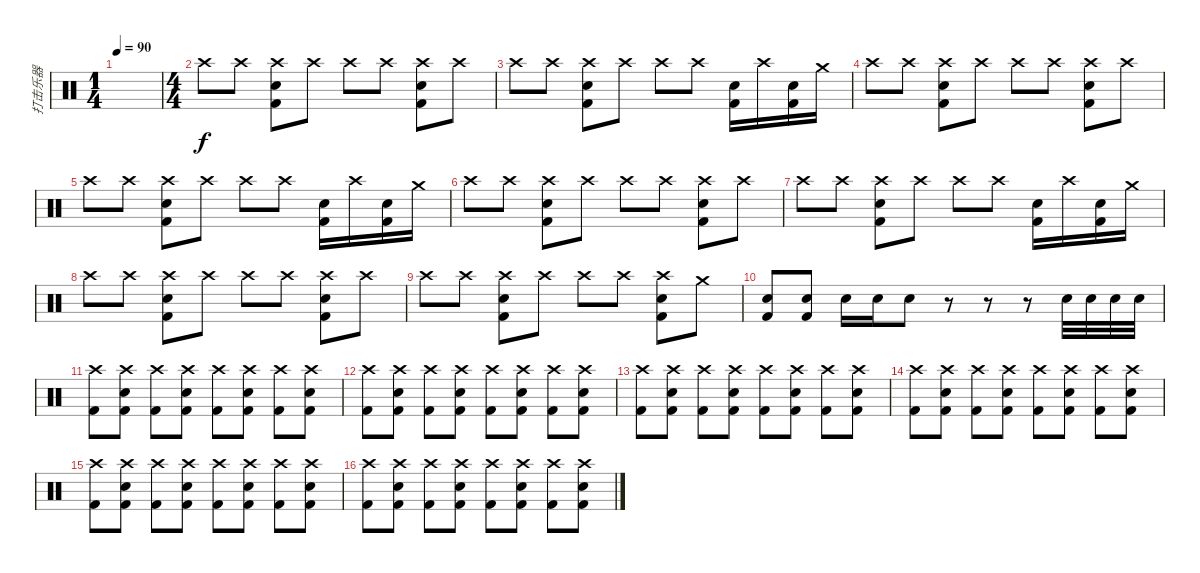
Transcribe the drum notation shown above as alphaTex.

\track ("打击乐器" "打击乐器") {instrument percussion}
\staff {score}
\articulation defaults
\ts (1 4)
\tempo 90
\clef neutral
\ks c
|
\ts (4 4)
"Crash high (hit)".8 "Crash high (hit)".8 ("Crash high (hit)" "Electric Snare (hit)" "Kick (hit) 2").8 "Crash high (hit)".8 "Crash high (hit)".8 "Crash high (hit)".8 ("Crash high (hit)" "Electric Snare (hit)" "Kick (hit) 2").8 "Crash high (hit)".8 |
"Crash high (hit)".8 "Crash high (hit)".8 ("Crash high (hit)" "Electric Snare (hit)" "Kick (hit) 2").8 "Crash high (hit)".8 "Crash high (hit)".8 "Crash high (hit)".8 ("Electric Snare (hit)" "Kick (hit) 2").16 "Crash high (hit)".16 ("Electric Snare (hit)" "Kick (hit) 2").16 "Crash medium (hit)".16 |
"Crash high (hit)".8 "Crash high (hit)".8 ("Crash high (hit)" "Electric Snare (hit)" "Kick (hit) 2").8 "Crash high (hit)".8 "Crash high (hit)".8 "Crash high (hit)".8 ("Crash high (hit)" "Electric Snare (hit)" "Kick (hit) 2").8 "Crash high (hit)".8 |
"Crash high (hit)".8 "Crash high (hit)".8 ("Crash high (hit)" "Electric Snare (hit)" "Kick (hit) 2").8 "Crash high (hit)".8 "Crash high (hit)".8 "Crash high (hit)".8 ("Electric Snare (hit)" "Kick (hit) 2").16 "Crash high (hit)".16 ("Electric Snare (hit)" "Kick (hit) 2").16 "Crash medium (hit)".16 |
"Crash high (hit)".8 "Crash high (hit)".8 ("Crash high (hit)" "Electric Snare (hit)" "Kick (hit) 2").8 "Crash high (hit)".8 "Crash high (hit)".8 "Crash high (hit)".8 ("Crash high (hit)" "Electric Snare (hit)" "Kick (hit) 2").8 "Crash high (hit)".8 |
"Crash high (hit)".8 "Crash high (hit)".8 ("Crash high (hit)" "Electric Snare (hit)" "Kick (hit) 2").8 "Crash high (hit)".8 "Crash high (hit)".8 "Crash high (hit)".8 ("Electric Snare (hit)" "Kick (hit) 2").16 "Crash high (hit)".16 ("Electric Snare (hit)" "Kick (hit) 2").16 "Crash medium (hit)".16 |
"Crash high (hit)".8 "Crash high (hit)".8 ("Crash high (hit)" "Electric Snare (hit)" "Kick (hit) 2").8 "Crash high (hit)".8 "Crash high (hit)".8 "Crash high (hit)".8 ("Crash high (hit)" "Electric Snare (hit)" "Kick (hit) 2").8 "Crash high (hit)".8 |
"Crash high (hit)".8 "Crash high (hit)".8 ("Crash high (hit)" "Electric Snare (hit)" "Kick (hit) 2").8 "Crash high (hit)".8 "Crash high (hit)".8 "Crash high (hit)".8 ("Crash high (hit)" "Electric Snare (hit)" "Kick (hit) 2").8 "Crash medium (hit)".8 |
("Snare (hit) 2" "Kick (hit) 2").8 ("Electric Snare (hit)" "Kick (hit) 2").8 "Snare (hit) 2".16 "Snare (hit) 2".16 "Electric Snare (hit)".8 r.8 r.8 r.8 "Electric Snare (hit)".32 "Electric Snare (hit)".32 "Electric Snare (hit)".32 "Electric Snare (hit)".32 |
("Crash high (hit)" "Kick (hit) 2").8 ("Crash high (hit)" "Electric Snare (hit)" "Kick (hit) 2").8 ("Crash high (hit)" "Kick (hit) 2").8 ("Crash high (hit)" "Electric Snare (hit)" "Kick (hit) 2").8 ("Crash high (hit)" "Kick (hit) 2").8 ("Crash high (hit)" "Electric Snare (hit)" "Kick (hit) 2").8 ("Crash high (hit)" "Kick (hit) 2").8 ("Crash high (hit)" "Electric Snare (hit)" "Kick (hit) 2").8 |
("Crash high (hit)" "Kick (hit) 2").8 ("Crash high (hit)" "Electric Snare (hit)" "Kick (hit) 2").8 ("Crash high (hit)" "Kick (hit) 2").8 ("Crash high (hit)" "Electric Snare (hit)" "Kick (hit) 2").8 ("Crash high (hit)" "Kick (hit) 2").8 ("Crash high (hit)" "Electric Snare (hit)" "Kick (hit) 2").8 ("Crash high (hit)" "Kick (hit) 2").8 ("Crash high (hit)" "Electric Snare (hit)" "Kick (hit) 2").8 |
("Crash high (hit)" "Kick (hit) 2").8 ("Crash high (hit)" "Electric Snare (hit)" "Kick (hit) 2").8 ("Crash high (hit)" "Kick (hit) 2").8 ("Crash high (hit)" "Electric Snare (hit)" "Kick (hit) 2").8 ("Crash high (hit)" "Kick (hit) 2").8 ("Crash high (hit)" "Electric Snare (hit)" "Kick (hit) 2").8 ("Crash high (hit)" "Kick (hit) 2").8 ("Crash high (hit)" "Electric Snare (hit)" "Kick (hit) 2").8 |
("Crash high (hit)" "Kick (hit) 2").8 ("Crash high (hit)" "Electric Snare (hit)" "Kick (hit) 2").8 ("Crash high (hit)" "Kick (hit) 2").8 ("Crash high (hit)" "Electric Snare (hit)" "Kick (hit) 2").8 ("Crash high (hit)" "Kick (hit) 2").8 ("Crash high (hit)" "Electric Snare (hit)" "Kick (hit) 2").8 ("Crash high (hit)" "Kick (hit) 2").8 ("Crash high (hit)" "Electric Snare (hit)" "Kick (hit) 2").8 |
("Crash high (hit)" "Kick (hit) 2").8 ("Crash high (hit)" "Electric Snare (hit)" "Kick (hit) 2").8 ("Crash high (hit)" "Kick (hit) 2").8 ("Crash high (hit)" "Electric Snare (hit)" "Kick (hit) 2").8 ("Crash high (hit)" "Kick (hit) 2").8 ("Crash high (hit)" "Electric Snare (hit)" "Kick (hit) 2").8 ("Crash high (hit)" "Kick (hit) 2").8 ("Crash high (hit)" "Electric Snare (hit)" "Kick (hit) 2").8 |
("Crash high (hit)" "Kick (hit) 2").8 ("Crash high (hit)" "Electric Snare (hit)" "Kick (hit) 2").8 ("Crash high (hit)" "Kick (hit) 2").8 ("Crash high (hit)" "Electric Snare (hit)" "Kick (hit) 2").8 ("Crash high (hit)" "Kick (hit) 2").8 ("Crash high (hit)" "Electric Snare (hit)" "Kick (hit) 2").8 ("Crash high (hit)" "Kick (hit) 2").8 ("Crash high (hit)" "Electric Snare (hit)" "Kick (hit) 2").8
